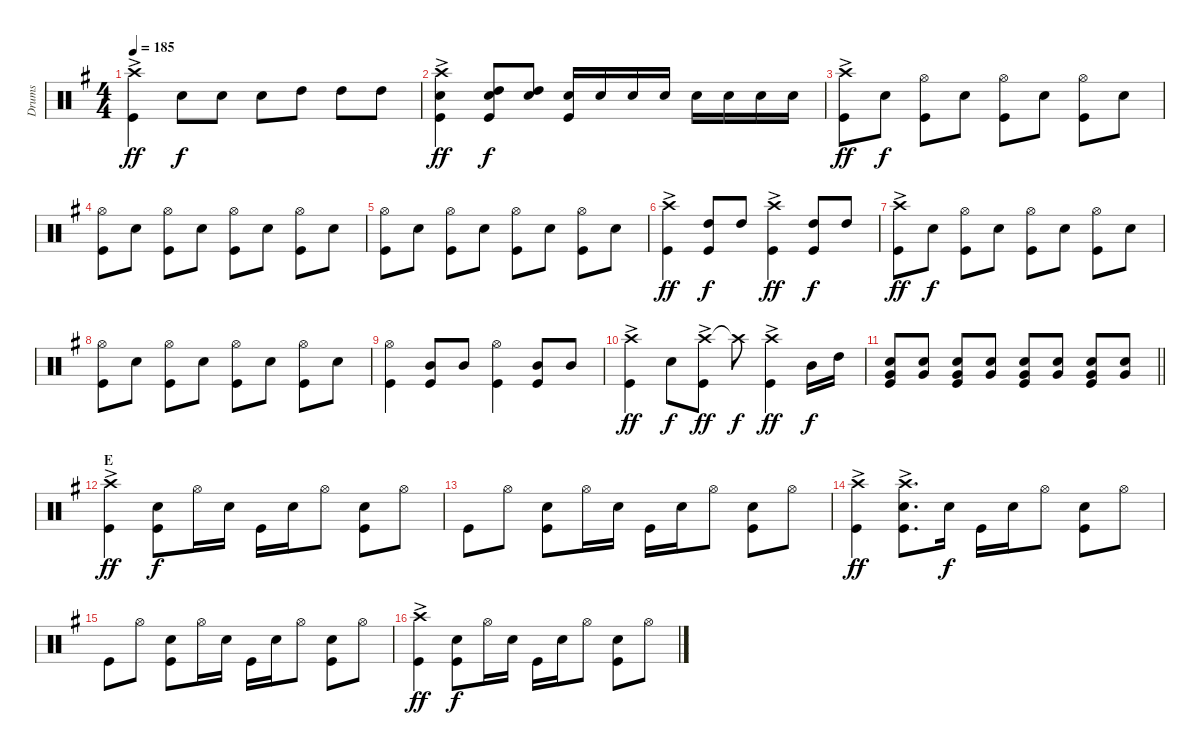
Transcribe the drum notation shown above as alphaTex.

\track ("Drums" "Drums") {instrument percussion}
\staff {score}
\articulation defaults
\ts (4 4)
\tempo 185
\clef neutral
\ks g
("Crash high (hit)"{ac} "Kick (hit)").4{dy ff} "Snare (hit) 2".8{dy f} "Snare (hit) 2".8 "Snare (hit) 2".8 "High Tom (hit)".8 "High Tom (hit)".8 "High Tom (hit)".8 |
("Crash high (hit)"{ac} "Snare (hit) 2" "Kick (hit)").4{dy ff} ("High Tom (hit)" "Snare (hit) 2" "Kick (hit)").8{dy f} ("High Tom (hit)" "Snare (hit) 2").8 ("Snare (hit) 2" "Kick (hit)").16 "Snare (hit) 2".16 "Snare (hit) 2".16 "Snare (hit) 2".16 "Snare (hit) 2".16 "Snare (hit) 2".16 "Snare (hit) 2".16 "Snare (hit) 2".16 |
("Crash high (hit)"{ac} "Kick (hit)").8{dy ff} "Snare (hit) 2".8{dy f} ("Hi-Hat (open)" "Kick (hit)").8 "Snare (hit) 2".8 ("Hi-Hat (open)" "Kick (hit)").8 "Snare (hit) 2".8 ("Hi-Hat (open)" "Kick (hit)").8 "Snare (hit) 2".8 |
("Hi-Hat (open)" "Kick (hit)").8 "Snare (hit) 2".8 ("Hi-Hat (open)" "Kick (hit)").8 "Snare (hit) 2".8 ("Hi-Hat (open)" "Kick (hit)").8 "Snare (hit) 2".8 ("Hi-Hat (open)" "Kick (hit)").8 "Snare (hit) 2".8 |
("Hi-Hat (open)" "Kick (hit)").8 "Snare (hit) 2".8 ("Hi-Hat (open)" "Kick (hit)").8 "Snare (hit) 2".8 ("Hi-Hat (open)" "Kick (hit)").8 "Snare (hit) 2".8 ("Hi-Hat (open)" "Kick (hit)").8 "Snare (hit) 2".8 |
("Crash high (hit)"{ac} "Kick (hit)").4{dy ff} ("High Tom (hit)" "Kick (hit)").8{dy f} "High Tom (hit)".8 ("Crash high (hit)"{ac} "Kick (hit)").4{dy ff} ("High Tom (hit)" "Kick (hit)").8{dy f} "High Tom (hit)".8 |
("Crash high (hit)"{ac} "Kick (hit)").8{dy ff} "Snare (hit) 2".8{dy f} ("Hi-Hat (open)" "Kick (hit)").8 "Snare (hit) 2".8 ("Hi-Hat (open)" "Kick (hit)").8 "Snare (hit) 2".8 ("Hi-Hat (open)" "Kick (hit)").8 "Snare (hit) 2".8 |
("Hi-Hat (open)" "Kick (hit)").8 "Snare (hit) 2".8 ("Hi-Hat (open)" "Kick (hit)").8 "Snare (hit) 2".8 ("Hi-Hat (open)" "Kick (hit)").8 "Snare (hit) 2".8 ("Hi-Hat (open)" "Kick (hit)").8 "Snare (hit) 2".8 |
("Hi-Hat (open)" "Kick (hit)").4 ("Mid Tom (hit)" "Kick (hit)").8 "Mid Tom (hit)".8 ("Hi-Hat (open)" "Kick (hit)").4 ("Mid Tom (hit)" "Kick (hit)").8 "Mid Tom (hit)".8 |
("Crash high (hit)"{ac} "Kick (hit)").4{dy ff} "Snare (hit) 2".8{dy f} ("Crash high (hit)"{ac} "Kick (hit)").8{dy ff} "Crash high (hit)"{t}.8{dy f} ("Crash high (hit)"{ac} "Kick (hit)").4{dy ff} "Mid Tom (hit)".16{dy f} "High Tom (hit)".16 |
\barLineRight lightlight
("Snare (hit) 2" "Very Low Tom (hit)" "Kick (hit)").8{volume 5} ("Snare (hit) 2" "Very Low Tom (hit)").8{volume 11} ("Snare (hit) 2" "Very Low Tom (hit)" "Kick (hit)").8 ("Snare (hit) 2" "Very Low Tom (hit)").8 ("Snare (hit) 2" "Very Low Tom (hit)" "Kick (hit)").8 ("Snare (hit) 2" "Very Low Tom (hit)").8 ("Snare (hit) 2" "Very Low Tom (hit)" "Kick (hit)").8 ("Snare (hit) 2" "Very Low Tom (hit)").8 |
\section ("" "E")
("Crash high (hit)"{ac} "Kick (hit)").4{dy ff volume 9} ("Snare (hit) 2" "Kick (hit)").8{dy f} "Hi-Hat (open)".16 "Snare (hit) 2".16 "Kick (hit)".16 "Snare (hit) 2".16 "Hi-Hat (open)".8 ("Snare (hit) 2" "Kick (hit)").8 "Hi-Hat (open)".8 |
"Kick (hit)".8 "Hi-Hat (open)".8 ("Snare (hit) 2" "Kick (hit)").8 "Hi-Hat (open)".16 "Snare (hit) 2".16 "Kick (hit)".16 "Snare (hit) 2".16 "Hi-Hat (open)".8 ("Snare (hit) 2" "Kick (hit)").8 "Hi-Hat (open)".8 |
("Crash high (hit)"{ac} "Kick (hit)").4{dy ff} ("Crash high (hit)"{ac} "Snare (hit) 2" "Kick (hit)").8{d} "Snare (hit) 2".16{dy f} "Kick (hit)".16 "Snare (hit) 2".16 "Hi-Hat (open)".8 ("Snare (hit) 2" "Kick (hit)").8 "Hi-Hat (open)".8 |
"Kick (hit)".8 "Hi-Hat (open)".8 ("Snare (hit) 2" "Kick (hit)").8 "Hi-Hat (open)".16 "Snare (hit) 2".16 "Kick (hit)".16 "Snare (hit) 2".16 "Hi-Hat (open)".8 ("Snare (hit) 2" "Kick (hit)").8 "Hi-Hat (open)".8 |
("Crash high (hit)"{ac} "Kick (hit)").4{dy ff} ("Snare (hit) 2" "Kick (hit)").8{dy f} "Hi-Hat (open)".16 "Snare (hit) 2".16 "Kick (hit)".16 "Snare (hit) 2".16 "Hi-Hat (open)".8 ("Snare (hit) 2" "Kick (hit)").8 "Hi-Hat (open)".8
